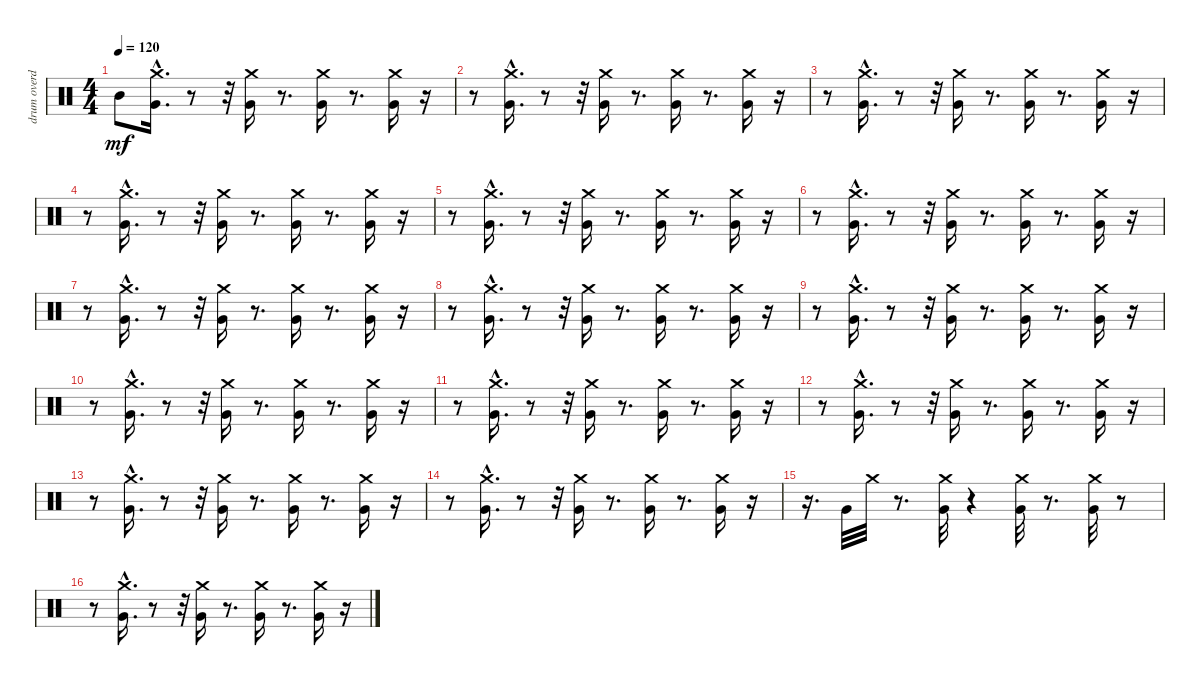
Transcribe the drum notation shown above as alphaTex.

\track ("drum overdub" "drum overd") {instrument percussion}
\staff {score}
\articulation defaults
\ts (4 4)
\tempo 120
\clef neutral
\ks c "Mid Tom (hit)".8{dy mf}
("Crash medium (hit)" "Very Low Tom (hit)"{hac}).16{d} r.8 r.32 ("Crash medium (hit)" "Very Low Tom (hit)").16 r.8{d} ("Crash medium (hit)" "Very Low Tom (hit)").16 r.8{d} ("Crash medium (hit)" "Very Low Tom (hit)").16 r.16 |
r.8 ("Crash medium (hit)" "Very Low Tom (hit)"{hac}).16{d} r.8 r.32 ("Crash medium (hit)" "Very Low Tom (hit)").16 r.8{d} ("Crash medium (hit)" "Very Low Tom (hit)").16 r.8{d} ("Crash medium (hit)" "Very Low Tom (hit)").16 r.16 |
r.8 ("Crash medium (hit)" "Very Low Tom (hit)"{hac}).16{d} r.8 r.32 ("Crash medium (hit)" "Very Low Tom (hit)").16 r.8{d} ("Crash medium (hit)" "Very Low Tom (hit)").16 r.8{d} ("Crash medium (hit)" "Very Low Tom (hit)").16 r.16 |
r.8 ("Crash medium (hit)" "Very Low Tom (hit)"{hac}).16{d} r.8 r.32 ("Crash medium (hit)" "Very Low Tom (hit)").16 r.8{d} ("Crash medium (hit)" "Very Low Tom (hit)").16 r.8{d} ("Crash medium (hit)" "Very Low Tom (hit)").16 r.16 |
r.8 ("Crash medium (hit)" "Very Low Tom (hit)"{hac}).16{d} r.8 r.32 ("Crash medium (hit)" "Very Low Tom (hit)").16 r.8{d} ("Crash medium (hit)" "Very Low Tom (hit)").16 r.8{d} ("Crash medium (hit)" "Very Low Tom (hit)").16 r.16 |
r.8 ("Crash medium (hit)" "Very Low Tom (hit)"{hac}).16{d} r.8 r.32 ("Crash medium (hit)" "Very Low Tom (hit)").16 r.8{d} ("Crash medium (hit)" "Very Low Tom (hit)").16 r.8{d} ("Crash medium (hit)" "Very Low Tom (hit)").16 r.16 |
r.8 ("Crash medium (hit)" "Very Low Tom (hit)"{hac}).16{d} r.8 r.32 ("Crash medium (hit)" "Very Low Tom (hit)").16 r.8{d} ("Crash medium (hit)" "Very Low Tom (hit)").16 r.8{d} ("Crash medium (hit)" "Very Low Tom (hit)").16 r.16 |
r.8 ("Crash medium (hit)" "Very Low Tom (hit)"{hac}).16{d} r.8 r.32 ("Crash medium (hit)" "Very Low Tom (hit)").16 r.8{d} ("Crash medium (hit)" "Very Low Tom (hit)").16 r.8{d} ("Crash medium (hit)" "Very Low Tom (hit)").16 r.16 |
r.8 ("Crash medium (hit)" "Very Low Tom (hit)"{hac}).16{d} r.8 r.32 ("Crash medium (hit)" "Very Low Tom (hit)").16 r.8{d} ("Crash medium (hit)" "Very Low Tom (hit)").16 r.8{d} ("Crash medium (hit)" "Very Low Tom (hit)").16 r.16 |
r.8 ("Crash medium (hit)" "Very Low Tom (hit)"{hac}).16{d} r.8 r.32 ("Crash medium (hit)" "Very Low Tom (hit)").16 r.8{d} ("Crash medium (hit)" "Very Low Tom (hit)").16 r.8{d} ("Crash medium (hit)" "Very Low Tom (hit)").16 r.16 |
r.8 ("Crash medium (hit)" "Very Low Tom (hit)"{hac}).16{d} r.8 r.32 ("Crash medium (hit)" "Very Low Tom (hit)").16 r.8{d} ("Crash medium (hit)" "Very Low Tom (hit)").16 r.8{d} ("Crash medium (hit)" "Very Low Tom (hit)").16 r.16 |
r.8 ("Crash medium (hit)" "Very Low Tom (hit)"{hac}).16{d} r.8 r.32 ("Crash medium (hit)" "Very Low Tom (hit)").16 r.8{d} ("Crash medium (hit)" "Very Low Tom (hit)").16 r.8{d} ("Crash medium (hit)" "Very Low Tom (hit)").16 r.16 |
r.8 ("Crash medium (hit)" "Very Low Tom (hit)"{hac}).16{d} r.8 r.32 ("Crash medium (hit)" "Very Low Tom (hit)").16 r.8{d} ("Crash medium (hit)" "Very Low Tom (hit)").16 r.8{d} ("Crash medium (hit)" "Very Low Tom (hit)").16 r.16 |
r.8 ("Crash medium (hit)" "Very Low Tom (hit)"{hac}).16{d} r.8 r.32 ("Crash medium (hit)" "Very Low Tom (hit)").16 r.8{d} ("Crash medium (hit)" "Very Low Tom (hit)").16 r.8{d} ("Crash medium (hit)" "Very Low Tom (hit)").16 r.16 |
r.16{d} "Very Low Tom (hit)".32 "Crash medium (hit)".32 r.8{d} ("Crash medium (hit)" "Very Low Tom (hit)").32 r.4 ("Crash medium (hit)" "Very Low Tom (hit)").32 r.8{d} ("Crash medium (hit)" "Very Low Tom (hit)").32 r.8 |
r.8 ("Crash medium (hit)" "Very Low Tom (hit)"{hac}).16{d} r.8 r.32 ("Crash medium (hit)" "Very Low Tom (hit)").16 r.8{d} ("Crash medium (hit)" "Very Low Tom (hit)").16 r.8{d} ("Crash medium (hit)" "Very Low Tom (hit)").16 r.16
